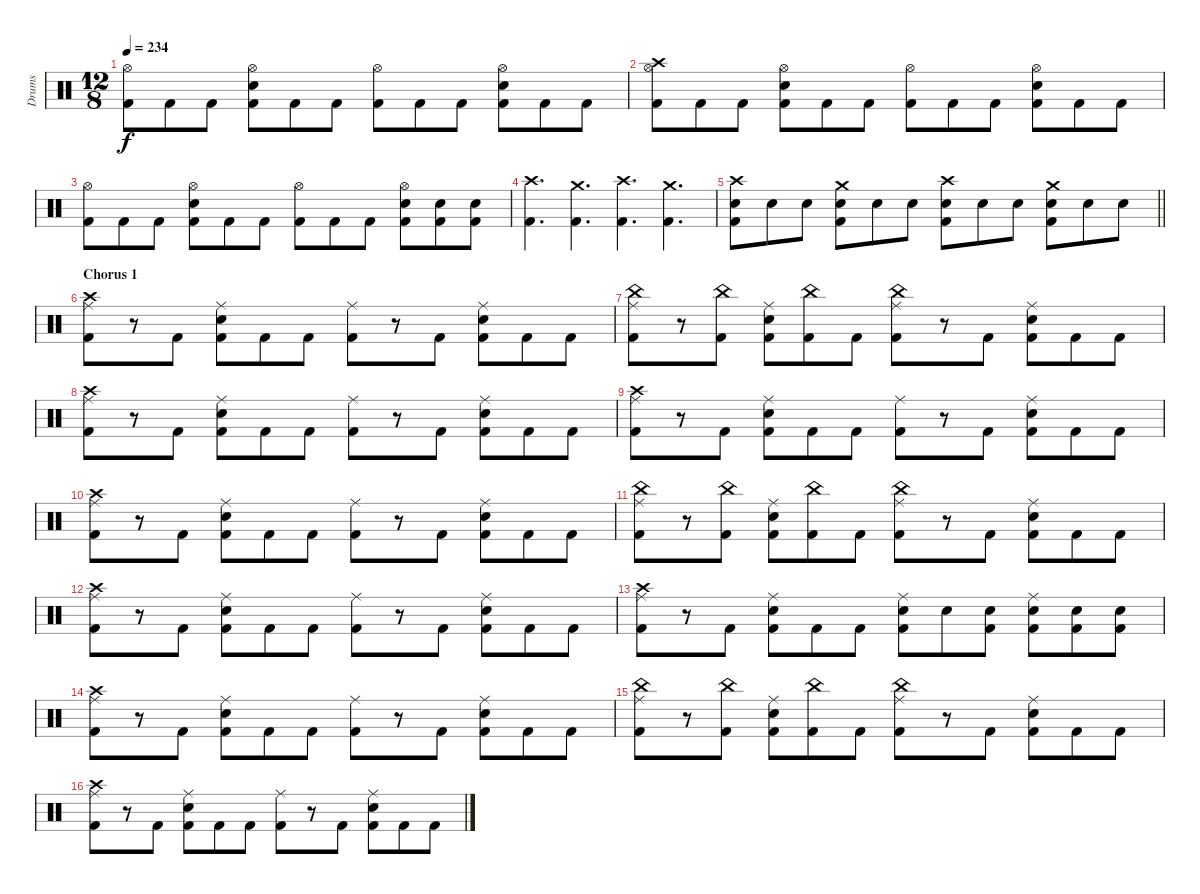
\track ("Drums" "Drums") {instrument percussion}
\staff {score}
\articulation defaults
\ts (12 8)
\tempo 234
\clef neutral
\ks c
("Hi-Hat (open)" "Kick (hit) 2").8{dy f} "Kick (hit) 2".8 "Kick (hit) 2".8 ("Hi-Hat (open)" "Snare (hit) 2" "Kick (hit) 2").8 "Kick (hit) 2".8 "Kick (hit) 2".8 ("Hi-Hat (open)" "Kick (hit) 2").8 "Kick (hit) 2".8 "Kick (hit) 2".8 ("Hi-Hat (open)" "Snare (hit) 2" "Kick (hit) 2").8 "Kick (hit) 2".8 "Kick (hit) 2".8 |
("Crash high (hit)" "Hi-Hat (open)" "Kick (hit) 2").8 "Kick (hit) 2".8 "Kick (hit) 2".8 ("Hi-Hat (open)" "Snare (hit) 2" "Kick (hit) 2").8 "Kick (hit) 2".8 "Kick (hit) 2".8 ("Hi-Hat (open)" "Kick (hit) 2").8 "Kick (hit) 2".8 "Kick (hit) 2".8 ("Hi-Hat (open)" "Snare (hit) 2" "Kick (hit) 2").8 "Kick (hit) 2".8 "Kick (hit) 2".8 |
("Hi-Hat (open)" "Kick (hit) 2").8 "Kick (hit) 2".8 "Kick (hit) 2".8 ("Hi-Hat (open)" "Snare (hit) 2" "Kick (hit) 2").8 "Kick (hit) 2".8 "Kick (hit) 2".8 ("Hi-Hat (open)" "Kick (hit) 2").8 "Kick (hit) 2".8 "Kick (hit) 2".8 ("Hi-Hat (open)" "Snare (hit) 2" "Kick (hit) 2").8 ("Snare (hit) 2" "Kick (hit) 2").8 ("Snare (hit) 2" "Kick (hit) 2").8 |
("Crash high (hit)" "Kick (hit) 2").4{d} ("Crash medium (hit)" "Kick (hit) 2").4{d} ("Crash high (hit)" "Kick (hit) 2").4{d} ("Crash medium (hit)" "Kick (hit) 2").4{d} |
\barLineRight lightlight
("Crash high (hit)" "Snare (hit) 2" "Kick (hit) 2").8 "Snare (hit) 2".8 "Snare (hit) 2".8 ("Crash medium (hit)" "Snare (hit) 2" "Kick (hit) 2").8 "Snare (hit) 2".8 "Snare (hit) 2".8 ("Crash high (hit)" "Snare (hit) 2" "Kick (hit) 2").8 "Snare (hit) 2".8 "Snare (hit) 2".8 ("Crash medium (hit)" "Snare (hit) 2" "Kick (hit) 2").8 "Snare (hit) 2".8 "Snare (hit) 2".8 |
\section ("" "Chorus 1")
("Crash high (hit)" "Ride (middle)" "Kick (hit) 2").8 r.8 "Kick (hit) 2".8 ("Ride (middle)" "Snare (hit) 2" "Kick (hit) 2").8 "Kick (hit) 2".8 "Kick (hit) 2".8 ("Ride (middle)" "Kick (hit) 2").8 r.8 "Kick (hit) 2".8 ("Ride (middle)" "Snare (hit) 2" "Kick (hit) 2").8 "Kick (hit) 2".8 "Kick (hit) 2".8 |
("China (hit)" "Ride (middle)" "Kick (hit) 2").8 r.8 ("China (hit)" "Kick (hit) 2").8 ("Ride (middle)" "Snare (hit) 2" "Kick (hit) 2").8 ("China (hit)" "Kick (hit) 2").8 "Kick (hit) 2".8 ("China (hit)" "Ride (middle)" "Kick (hit) 2").8 r.8 "Kick (hit) 2".8 ("Ride (middle)" "Snare (hit) 2" "Kick (hit) 2").8 "Kick (hit) 2".8 "Kick (hit) 2".8 |
("Crash high (hit)" "Ride (middle)" "Kick (hit) 2").8 r.8 "Kick (hit) 2".8 ("Ride (middle)" "Snare (hit) 2" "Kick (hit) 2").8 "Kick (hit) 2".8 "Kick (hit) 2".8 ("Ride (middle)" "Kick (hit) 2").8 r.8 "Kick (hit) 2".8 ("Ride (middle)" "Snare (hit) 2" "Kick (hit) 2").8 "Kick (hit) 2".8 "Kick (hit) 2".8 |
("Crash high (hit)" "Ride (middle)" "Kick (hit) 2").8 r.8 "Kick (hit) 2".8 ("Ride (middle)" "Snare (hit) 2" "Kick (hit) 2").8 "Kick (hit) 2".8 "Kick (hit) 2".8 ("Ride (middle)" "Kick (hit) 2").8 r.8 "Kick (hit) 2".8 ("Ride (middle)" "Snare (hit) 2" "Kick (hit) 2").8 "Kick (hit) 2".8 "Kick (hit) 2".8 |
("Crash high (hit)" "Ride (middle)" "Kick (hit) 2").8 r.8 "Kick (hit) 2".8 ("Ride (middle)" "Snare (hit) 2" "Kick (hit) 2").8 "Kick (hit) 2".8 "Kick (hit) 2".8 ("Ride (middle)" "Kick (hit) 2").8 r.8 "Kick (hit) 2".8 ("Ride (middle)" "Snare (hit) 2" "Kick (hit) 2").8 "Kick (hit) 2".8 "Kick (hit) 2".8 |
("China (hit)" "Ride (middle)" "Kick (hit) 2").8 r.8 ("China (hit)" "Kick (hit) 2").8 ("Ride (middle)" "Snare (hit) 2" "Kick (hit) 2").8 ("China (hit)" "Kick (hit) 2").8 "Kick (hit) 2".8 ("China (hit)" "Ride (middle)" "Kick (hit) 2").8 r.8 "Kick (hit) 2".8 ("Ride (middle)" "Snare (hit) 2" "Kick (hit) 2").8 "Kick (hit) 2".8 "Kick (hit) 2".8 |
("Crash high (hit)" "Ride (middle)" "Kick (hit) 2").8 r.8 "Kick (hit) 2".8 ("Ride (middle)" "Snare (hit) 2" "Kick (hit) 2").8 "Kick (hit) 2".8 "Kick (hit) 2".8 ("Ride (middle)" "Kick (hit) 2").8 r.8 "Kick (hit) 2".8 ("Ride (middle)" "Snare (hit) 2" "Kick (hit) 2").8 "Kick (hit) 2".8 "Kick (hit) 2".8 |
("Crash high (hit)" "Ride (middle)" "Kick (hit) 2").8 r.8 "Kick (hit) 2".8 ("Ride (middle)" "Snare (hit) 2" "Kick (hit) 2").8 "Kick (hit) 2".8 "Kick (hit) 2".8 ("Ride (middle)" "Snare (hit) 2" "Kick (hit) 2").8 "Snare (hit) 2".8 ("Snare (hit) 2" "Kick (hit) 2").8 ("Ride (middle)" "Snare (hit) 2" "Kick (hit) 2").8 ("Snare (hit) 2" "Kick (hit) 2").8 ("Snare (hit) 2" "Kick (hit) 2").8 |
("Crash high (hit)" "Ride (middle)" "Kick (hit) 2").8 r.8 "Kick (hit) 2".8 ("Ride (middle)" "Snare (hit) 2" "Kick (hit) 2").8 "Kick (hit) 2".8 "Kick (hit) 2".8 ("Ride (middle)" "Kick (hit) 2").8 r.8 "Kick (hit) 2".8 ("Ride (middle)" "Snare (hit) 2" "Kick (hit) 2").8 "Kick (hit) 2".8 "Kick (hit) 2".8 |
("China (hit)" "Ride (middle)" "Kick (hit) 2").8 r.8 ("China (hit)" "Kick (hit) 2").8 ("Ride (middle)" "Snare (hit) 2" "Kick (hit) 2").8 ("China (hit)" "Kick (hit) 2").8 "Kick (hit) 2".8 ("China (hit)" "Ride (middle)" "Kick (hit) 2").8 r.8 "Kick (hit) 2".8 ("Ride (middle)" "Snare (hit) 2" "Kick (hit) 2").8 "Kick (hit) 2".8 "Kick (hit) 2".8 |
("Crash high (hit)" "Ride (middle)" "Kick (hit) 2").8 r.8 "Kick (hit) 2".8 ("Ride (middle)" "Snare (hit) 2" "Kick (hit) 2").8 "Kick (hit) 2".8 "Kick (hit) 2".8 ("Ride (middle)" "Kick (hit) 2").8 r.8 "Kick (hit) 2".8 ("Ride (middle)" "Snare (hit) 2" "Kick (hit) 2").8 "Kick (hit) 2".8 "Kick (hit) 2".8
